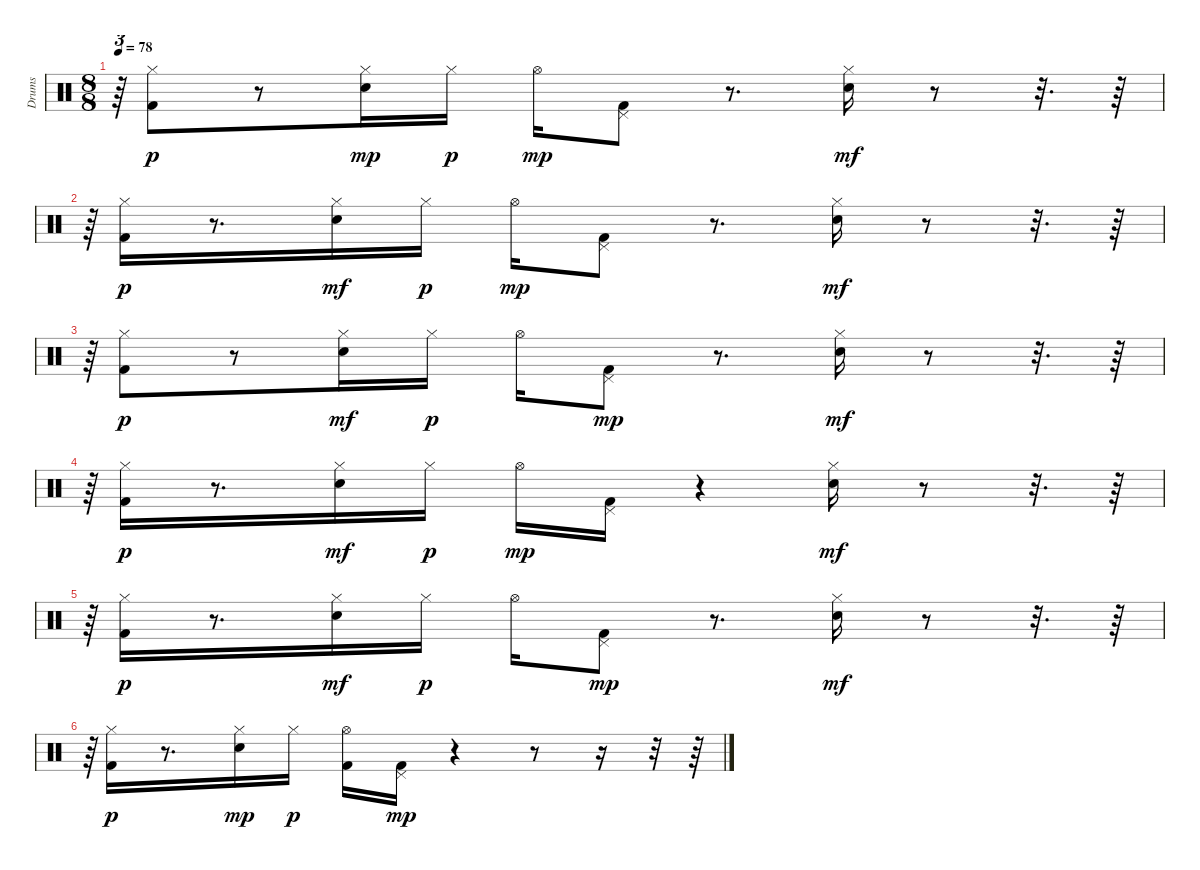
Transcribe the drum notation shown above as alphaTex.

\track ("Drums" "Drums") {instrument percussion}
\staff {score}
\articulation defaults
\ts (8 8)
\tempo 78
\clef neutral
\ks c
r.64{tu (3 2) dy mf} ("Kick (hit) 2" "Hi-Hat (closed)").8{dy p} r.8 ("Hi-Hat (closed)" "Electric Snare (hit)").16{dy mp} "Hi-Hat (closed)".16{dy p} "Hi-Hat (open)".16{dy mp} ("Kick (hit) 2" "Pedal Hi-Hat (hit)").8 r.8{d} ("Hi-Hat (closed)" "Electric Snare (hit)").16{dy mf} r.8 r.32{d} r.64 |
r.64{tu (3 2)} ("Kick (hit) 2" "Hi-Hat (closed)").16{dy p} r.8{d} ("Hi-Hat (closed)" "Electric Snare (hit)").16{dy mf} "Hi-Hat (closed)".16{dy p} "Hi-Hat (open)".16{dy mp} ("Kick (hit) 2" "Pedal Hi-Hat (hit)").8 r.8{d} ("Hi-Hat (closed)" "Electric Snare (hit)").16{dy mf} r.8 r.32{d} r.64 |
r.64{tu (3 2)} ("Kick (hit) 2" "Hi-Hat (closed)").8{dy p} r.8 ("Hi-Hat (closed)" "Electric Snare (hit)").16{dy mf} "Hi-Hat (closed)".16{dy p} "Hi-Hat (open)".16 ("Kick (hit) 2" "Pedal Hi-Hat (hit)").8{dy mp} r.8{d} ("Hi-Hat (closed)" "Electric Snare (hit)").16{dy mf} r.8 r.32{d} r.64 |
r.64{tu (3 2)} ("Kick (hit) 2" "Hi-Hat (closed)").16{dy p} r.8{d} ("Hi-Hat (closed)" "Electric Snare (hit)").16{dy mf} "Hi-Hat (closed)".16{dy p} "Hi-Hat (open)".16{dy mp} ("Kick (hit) 2" "Pedal Hi-Hat (hit)").16 r.4 ("Hi-Hat (closed)" "Electric Snare (hit)").16{dy mf} r.8 r.32{d} r.64 |
r.64{tu (3 2)} ("Kick (hit) 2" "Hi-Hat (closed)").16{dy p} r.8{d} ("Hi-Hat (closed)" "Electric Snare (hit)").16{dy mf} "Hi-Hat (closed)".16{dy p} "Hi-Hat (open)".16 ("Kick (hit) 2" "Pedal Hi-Hat (hit)").8{dy mp} r.8{d} ("Hi-Hat (closed)" "Electric Snare (hit)").16{dy mf} r.8 r.32{d} r.64 |
r.64{tu (3 2)} ("Kick (hit) 2" "Hi-Hat (closed)").16{dy p} r.8{d} ("Hi-Hat (closed)" "Electric Snare (hit)").16{dy mp} "Hi-Hat (closed)".16{dy p} ("Kick (hit) 2" "Hi-Hat (open)").16 ("Kick (hit) 2" "Pedal Hi-Hat (hit)").16{dy mp} r.4 r.8 r.16 r.32 r.64
